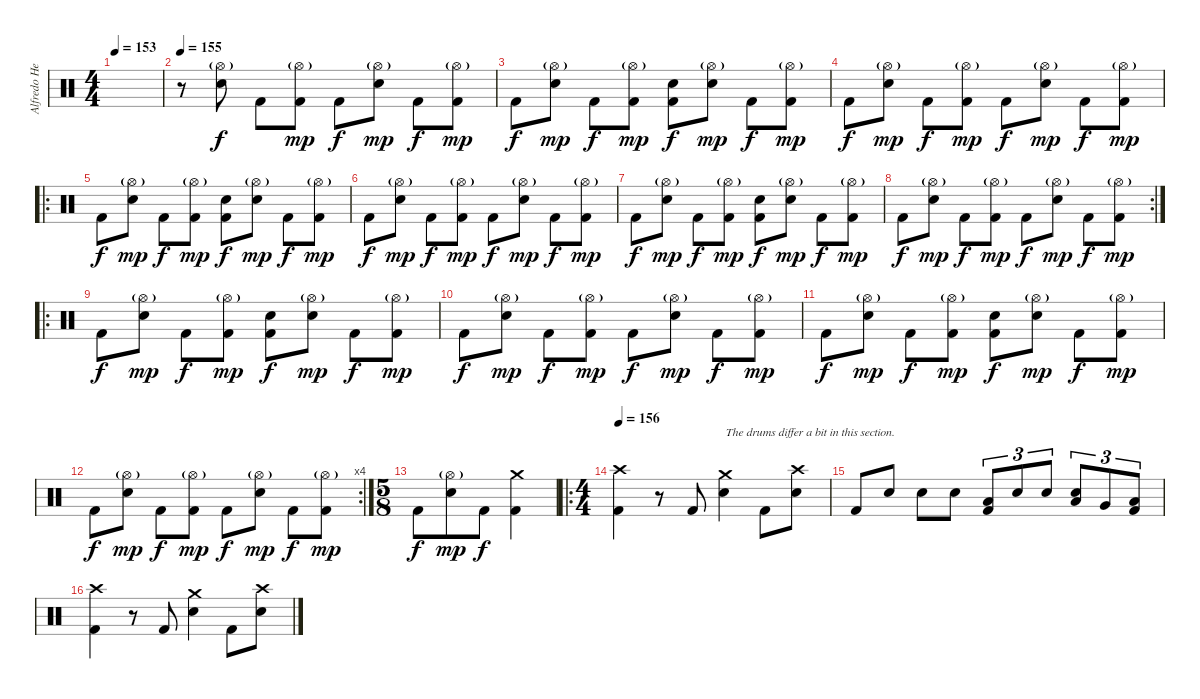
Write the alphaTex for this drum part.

\track ("Alfredo Hernández" "Alfredo He") {instrument percussion}
\staff {score}
\articulation defaults
\ts (4 4)
\tempo 153
\tempo 148
\tempo 153
\clef neutral
\ks c
|
\tempo 155
r.8 ("Electric Snare (hit)" "Hi-Hat (open)"{g}).8 "Kick (hit) 2".8{dy f} ("Hi-Hat (open)"{g} "Kick (hit) 2").8{dy mp} "Kick (hit) 2".8{dy f} ("Electric Snare (hit)" "Hi-Hat (open)"{g}).8{dy mp} "Kick (hit) 2".8{dy f} ("Hi-Hat (open)"{g} "Kick (hit) 2").8{dy mp} |
"Kick (hit) 2".8{dy f} ("Electric Snare (hit)" "Hi-Hat (open)"{g}).8{dy mp} "Kick (hit) 2".8{dy f} ("Hi-Hat (open)"{g} "Kick (hit) 2").8{dy mp} ("Electric Snare (hit)" "Kick (hit) 2").8{dy f} ("Electric Snare (hit)" "Hi-Hat (open)"{g}).8{dy mp} "Kick (hit) 2".8{dy f} ("Hi-Hat (open)"{g} "Kick (hit) 2").8{dy mp} |
"Kick (hit) 2".8{dy f} ("Electric Snare (hit)" "Hi-Hat (open)"{g}).8{dy mp} "Kick (hit) 2".8{dy f} ("Hi-Hat (open)"{g} "Kick (hit) 2").8{dy mp} "Kick (hit) 2".8{dy f} ("Electric Snare (hit)" "Hi-Hat (open)"{g}).8{dy mp} "Kick (hit) 2".8{dy f} ("Hi-Hat (open)"{g} "Kick (hit) 2").8{dy mp} |
\ro "Kick (hit) 2".8{dy f}
("Electric Snare (hit)" "Hi-Hat (open)"{g}).8{dy mp} "Kick (hit) 2".8{dy f} ("Hi-Hat (open)"{g} "Kick (hit) 2").8{dy mp} ("Electric Snare (hit)" "Kick (hit) 2").8{dy f} ("Electric Snare (hit)" "Hi-Hat (open)"{g}).8{dy mp} "Kick (hit) 2".8{dy f} ("Hi-Hat (open)"{g} "Kick (hit) 2").8{dy mp} |
"Kick (hit) 2".8{dy f} ("Electric Snare (hit)" "Hi-Hat (open)"{g}).8{dy mp} "Kick (hit) 2".8{dy f} ("Hi-Hat (open)"{g} "Kick (hit) 2").8{dy mp} "Kick (hit) 2".8{dy f} ("Electric Snare (hit)" "Hi-Hat (open)"{g}).8{dy mp} "Kick (hit) 2".8{dy f} ("Hi-Hat (open)"{g} "Kick (hit) 2").8{dy mp} |
"Kick (hit) 2".8{dy f} ("Electric Snare (hit)" "Hi-Hat (open)"{g}).8{dy mp} "Kick (hit) 2".8{dy f} ("Hi-Hat (open)"{g} "Kick (hit) 2").8{dy mp} ("Electric Snare (hit)" "Kick (hit) 2").8{dy f} ("Electric Snare (hit)" "Hi-Hat (open)"{g}).8{dy mp} "Kick (hit) 2".8{dy f} ("Hi-Hat (open)"{g} "Kick (hit) 2").8{dy mp} |
\rc 2 "Kick (hit) 2".8{dy f}
("Electric Snare (hit)" "Hi-Hat (open)"{g}).8{dy mp} "Kick (hit) 2".8{dy f} ("Hi-Hat (open)"{g} "Kick (hit) 2").8{dy mp} "Kick (hit) 2".8{dy f} ("Electric Snare (hit)" "Hi-Hat (open)"{g}).8{dy mp} "Kick (hit) 2".8{dy f} ("Hi-Hat (open)"{g} "Kick (hit) 2").8{dy mp} |
\ro "Kick (hit) 2".8{dy f}
("Electric Snare (hit)" "Hi-Hat (open)"{g}).8{dy mp} "Kick (hit) 2".8{dy f} ("Hi-Hat (open)"{g} "Kick (hit) 2").8{dy mp} ("Electric Snare (hit)" "Kick (hit) 2").8{dy f} ("Electric Snare (hit)" "Hi-Hat (open)"{g}).8{dy mp} "Kick (hit) 2".8{dy f} ("Hi-Hat (open)"{g} "Kick (hit) 2").8{dy mp} |
"Kick (hit) 2".8{dy f} ("Electric Snare (hit)" "Hi-Hat (open)"{g}).8{dy mp} "Kick (hit) 2".8{dy f} ("Hi-Hat (open)"{g} "Kick (hit) 2").8{dy mp} "Kick (hit) 2".8{dy f} ("Electric Snare (hit)" "Hi-Hat (open)"{g}).8{dy mp} "Kick (hit) 2".8{dy f} ("Hi-Hat (open)"{g} "Kick (hit) 2").8{dy mp} |
"Kick (hit) 2".8{dy f} ("Electric Snare (hit)" "Hi-Hat (open)"{g}).8{dy mp} "Kick (hit) 2".8{dy f} ("Hi-Hat (open)"{g} "Kick (hit) 2").8{dy mp} ("Electric Snare (hit)" "Kick (hit) 2").8{dy f} ("Electric Snare (hit)" "Hi-Hat (open)"{g}).8{dy mp} "Kick (hit) 2".8{dy f} ("Hi-Hat (open)"{g} "Kick (hit) 2").8{dy mp} |
\rc 4 "Kick (hit) 2".8{dy f}
("Electric Snare (hit)" "Hi-Hat (open)"{g}).8{dy mp} "Kick (hit) 2".8{dy f} ("Hi-Hat (open)"{g} "Kick (hit) 2").8{dy mp} "Kick (hit) 2".8{dy f} ("Electric Snare (hit)" "Hi-Hat (open)"{g}).8{dy mp} "Kick (hit) 2".8{dy f} ("Hi-Hat (open)"{g} "Kick (hit) 2").8{dy mp} |
\ts (5 8)
"Kick (hit) 2".8{dy f} ("Electric Snare (hit)" "Hi-Hat (open)"{g}).8{dy mp} "Kick (hit) 2".8{dy f} ("Crash medium (hit)" "Kick (hit) 2").4 |
\ro
\ts (4 4)
\tempo 156
("Crash high (hit)" "Kick (hit) 2").4 r.8 "Kick (hit) 2".8 ("Electric Snare (hit)" "Crash medium (hit)").4{txt "The drums differ a bit in this section."} "Kick (hit) 2".8 ("Electric Snare (hit)" "Crash high (hit)").8 |
"Kick (hit) 2".8 "Electric Snare (hit)".8 "Electric Snare (hit)".8 "Electric Snare (hit)".8 ("Low Floor Tom (hit)" "Kick (hit) 2").8{tu (3 2)} "Electric Snare (hit)".8{tu (3 2)} "Electric Snare (hit)".8{tu (3 2)} ("Electric Snare (hit)" "Low Tom (hit)").8{tu (3 2)} "Very Low Tom (hit)".8{tu (3 2)} ("Low Floor Tom (hit)" "Kick (hit) 2").8{tu (3 2)} |
("Crash high (hit)" "Kick (hit) 2").4 r.8 "Kick (hit) 2".8 ("Electric Snare (hit)" "Crash medium (hit)").4 "Kick (hit) 2".8 ("Electric Snare (hit)" "Crash high (hit)").8
